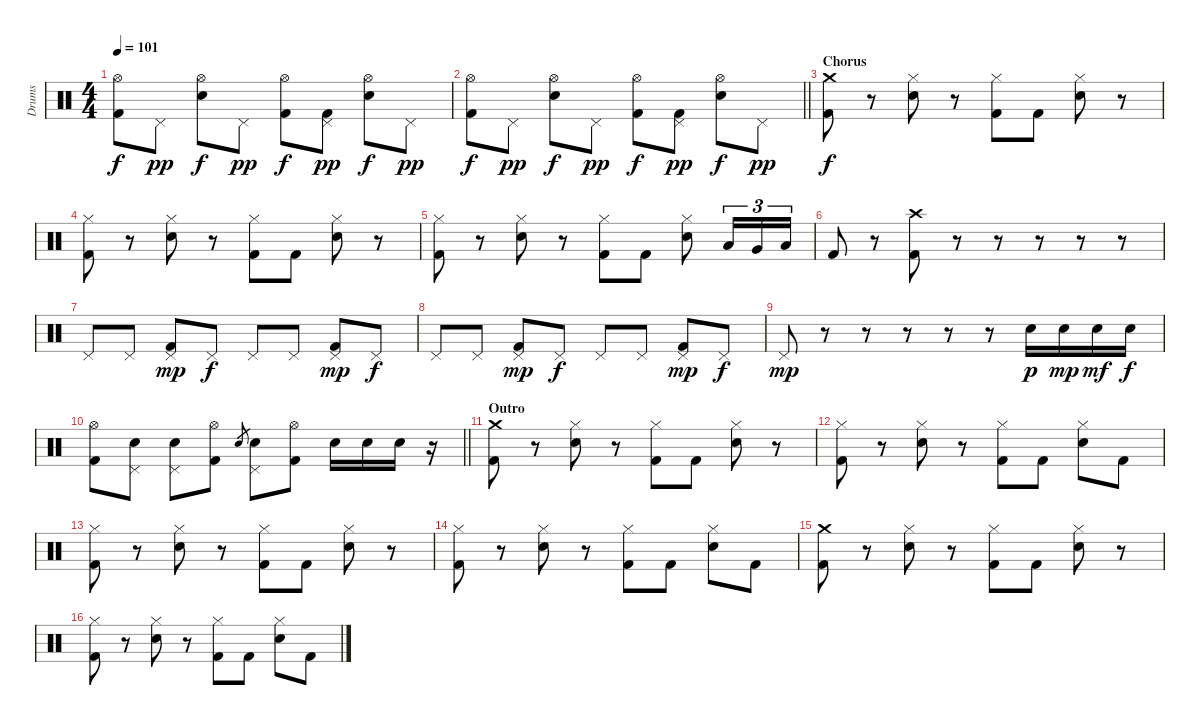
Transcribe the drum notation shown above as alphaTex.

\track ("Drums" "Drums") {instrument percussion}
\staff {score}
\articulation defaults
\ts (4 4)
\tempo 101
\clef neutral
\ks c
("Hi-Hat (open)" "Kick (hit) 2").8{dy f} "Pedal Hi-Hat (hit)".8{dy pp} ("Hi-Hat (open)" "Snare (hit) 2").8{dy f} "Pedal Hi-Hat (hit)".8{dy pp} ("Hi-Hat (open)" "Kick (hit) 2").8{dy f} ("Pedal Hi-Hat (hit)" "Kick (hit) 2").8{dy pp} ("Hi-Hat (open)" "Snare (hit) 2").8{dy f} "Pedal Hi-Hat (hit)".8{dy pp} |
\barLineRight lightlight
("Hi-Hat (open)" "Kick (hit) 2").8{dy f} "Pedal Hi-Hat (hit)".8{dy pp} ("Hi-Hat (open)" "Snare (hit) 2").8{dy f} "Pedal Hi-Hat (hit)".8{dy pp} ("Hi-Hat (open)" "Kick (hit) 2").8{dy f} ("Pedal Hi-Hat (hit)" "Kick (hit) 2").8{dy pp} ("Hi-Hat (open)" "Snare (hit) 2").8{dy f} "Pedal Hi-Hat (hit)".8{dy pp} |
\section ("" "Chorus")
("Crash medium (hit)" "Kick (hit) 2").8{dy f} r.8 ("Hi-Hat (closed)" "Snare (hit) 2").8 r.8 ("Hi-Hat (closed)" "Kick (hit) 2").8 "Kick (hit) 2".8 ("Hi-Hat (closed)" "Snare (hit) 2").8 r.8 |
("Hi-Hat (closed)" "Kick (hit) 2").8 r.8 ("Hi-Hat (closed)" "Snare (hit) 2").8 r.8 ("Hi-Hat (closed)" "Kick (hit) 2").8 "Kick (hit) 2".8 ("Hi-Hat (closed)" "Snare (hit) 2").8 r.8 |
("Hi-Hat (closed)" "Kick (hit) 2").8 r.8 ("Hi-Hat (closed)" "Snare (hit) 2").8 r.8 ("Hi-Hat (closed)" "Kick (hit) 2").8 "Kick (hit) 2".8 ("Hi-Hat (closed)" "Snare (hit) 2").8 "Low Tom (hit)".16{tu (3 2)} "Very Low Tom (hit)".16{tu (3 2)} "Low Floor Tom (hit)".16{tu (3 2)} |
"Kick (hit) 2".8 r.8 ("Crash high (hit)" "Kick (hit) 2").8 r.8 r.8 r.8 r.8 r.8 |
"Pedal Hi-Hat (hit)".8 "Pedal Hi-Hat (hit)".8 ("Pedal Hi-Hat (hit)" "Kick (hit) 2").8{dy mp} "Pedal Hi-Hat (hit)".8{dy f} "Pedal Hi-Hat (hit)".8 "Pedal Hi-Hat (hit)".8 ("Pedal Hi-Hat (hit)" "Kick (hit) 2").8{dy mp} "Pedal Hi-Hat (hit)".8{dy f} |
"Pedal Hi-Hat (hit)".8 "Pedal Hi-Hat (hit)".8 ("Pedal Hi-Hat (hit)" "Kick (hit) 2").8{dy mp} "Pedal Hi-Hat (hit)".8{dy f} "Pedal Hi-Hat (hit)".8 "Pedal Hi-Hat (hit)".8 ("Pedal Hi-Hat (hit)" "Kick (hit) 2").8{dy mp} "Pedal Hi-Hat (hit)".8{dy f} |
"Pedal Hi-Hat (hit)".8{dy mp} r.8 r.8 r.8 r.8 r.8 "Snare (hit) 2".16{dy p} "Snare (hit) 2".16{dy mp} "Snare (hit) 2".16{dy mf} "Snare (hit) 2".16{dy f} |
\barLineRight lightlight
("Hi-Hat (open)" "Kick (hit) 2").8 ("Pedal Hi-Hat (hit)" "Snare (hit) 2").8 ("Pedal Hi-Hat (hit)" "Snare (hit) 2").8 ("Hi-Hat (open)" "Kick (hit) 2").8 "Snare (hit) 2".8{gr} ("Pedal Hi-Hat (hit)" "Snare (hit) 2").8 ("Hi-Hat (open)" "Kick (hit) 2").8 "Snare (hit) 2".16 "Snare (hit) 2".16 "Snare (hit) 2".16 r.16 |
\section ("" "Outro")
("Crash medium (hit)" "Kick (hit) 2").8 r.8 ("Hi-Hat (closed)" "Snare (hit) 2").8 r.8 ("Hi-Hat (closed)" "Kick (hit) 2").8 "Kick (hit) 2".8 ("Hi-Hat (closed)" "Snare (hit) 2").8 r.8 |
("Hi-Hat (closed)" "Kick (hit) 2").8 r.8 ("Hi-Hat (closed)" "Snare (hit) 2").8 r.8 ("Hi-Hat (closed)" "Kick (hit) 2").8 "Kick (hit) 2".8 ("Hi-Hat (closed)" "Snare (hit) 2").8 "Kick (hit) 2".8 |
("Hi-Hat (closed)" "Kick (hit) 2").8 r.8 ("Hi-Hat (closed)" "Snare (hit) 2").8 r.8 ("Hi-Hat (closed)" "Kick (hit) 2").8 "Kick (hit) 2".8 ("Hi-Hat (closed)" "Snare (hit) 2").8 r.8 |
("Hi-Hat (closed)" "Kick (hit) 2").8 r.8 ("Hi-Hat (closed)" "Snare (hit) 2").8 r.8 ("Hi-Hat (closed)" "Kick (hit) 2").8 "Kick (hit) 2".8 ("Hi-Hat (closed)" "Snare (hit) 2").8 "Kick (hit) 2".8 |
("Crash medium (hit)" "Kick (hit) 2").8 r.8 ("Hi-Hat (closed)" "Snare (hit) 2").8 r.8 ("Hi-Hat (closed)" "Kick (hit) 2").8 "Kick (hit) 2".8 ("Hi-Hat (closed)" "Snare (hit) 2").8 r.8 |
("Hi-Hat (closed)" "Kick (hit) 2").8 r.8 ("Hi-Hat (closed)" "Snare (hit) 2").8 r.8 ("Hi-Hat (closed)" "Kick (hit) 2").8 "Kick (hit) 2".8 ("Hi-Hat (closed)" "Snare (hit) 2").8 "Kick (hit) 2".8
